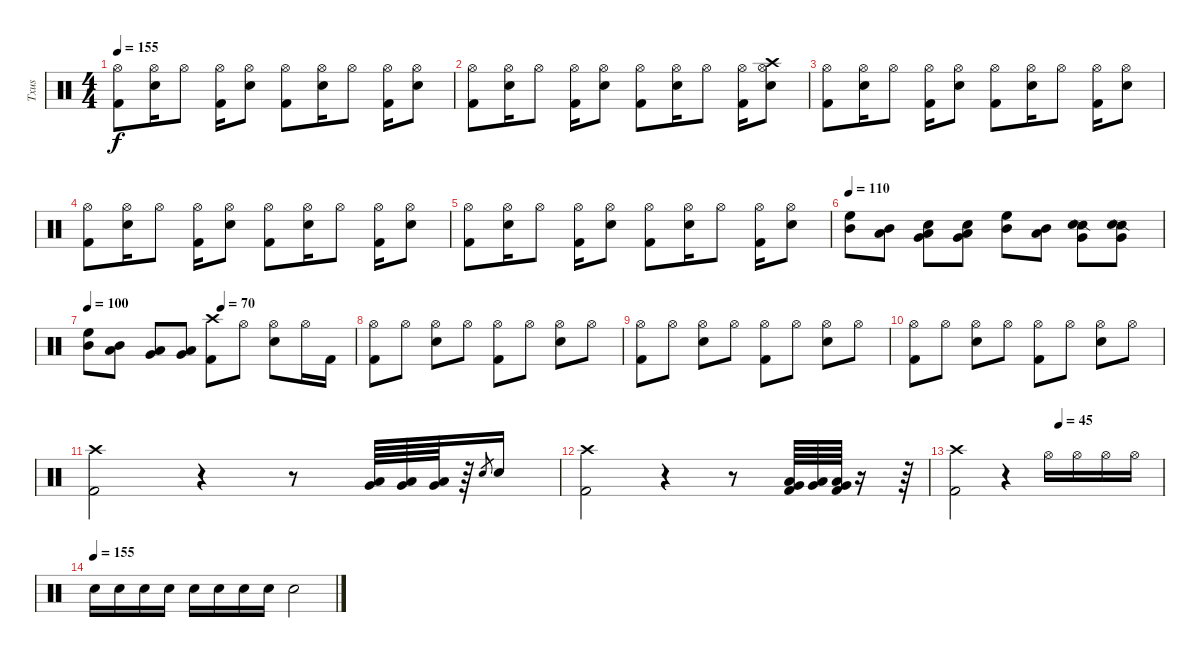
\track ("Txus" "Txus") {instrument percussion}
\staff {score}
\articulation defaults
\ts (4 4)
\tempo 155
\clef neutral
\ks c
("Kick (hit) 2" "Hi-Hat (open)").8{dy f} ("Snare (hit) 2" "Hi-Hat (open)").16 "Hi-Hat (open)".8 ("Kick (hit) 2" "Hi-Hat (open)").16 ("Snare (hit) 2" "Hi-Hat (open)").8 ("Kick (hit) 2" "Hi-Hat (open)").8 ("Snare (hit) 2" "Hi-Hat (open)").16 "Hi-Hat (open)".8 ("Kick (hit) 2" "Hi-Hat (open)").16 ("Snare (hit) 2" "Hi-Hat (open)").8 |
("Kick (hit) 2" "Hi-Hat (open)").8 ("Snare (hit) 2" "Hi-Hat (open)").16 "Hi-Hat (open)".8 ("Kick (hit) 2" "Hi-Hat (open)").16 ("Snare (hit) 2" "Hi-Hat (open)").8 ("Kick (hit) 2" "Hi-Hat (open)").8 ("Snare (hit) 2" "Hi-Hat (open)").16 "Hi-Hat (open)".8 ("Kick (hit) 2" "Hi-Hat (open)").16 ("Snare (hit) 2" "Hi-Hat (open)" "Crash high (hit)").8 |
("Kick (hit) 2" "Hi-Hat (open)").8 ("Snare (hit) 2" "Hi-Hat (open)").16 "Hi-Hat (open)".8 ("Kick (hit) 2" "Hi-Hat (open)").16 ("Snare (hit) 2" "Hi-Hat (open)").8 ("Kick (hit) 2" "Hi-Hat (open)").8 ("Snare (hit) 2" "Hi-Hat (open)").16 "Hi-Hat (open)".8 ("Kick (hit) 2" "Hi-Hat (open)").16 ("Snare (hit) 2" "Hi-Hat (open)").8 |
("Kick (hit) 2" "Hi-Hat (open)").8 ("Snare (hit) 2" "Hi-Hat (open)").16 "Hi-Hat (open)".8 ("Kick (hit) 2" "Hi-Hat (open)").16 ("Snare (hit) 2" "Hi-Hat (open)").8 ("Kick (hit) 2" "Hi-Hat (open)").8 ("Snare (hit) 2" "Hi-Hat (open)").16 "Hi-Hat (open)".8 ("Kick (hit) 2" "Hi-Hat (open)").16 ("Snare (hit) 2" "Hi-Hat (open)").8 |
("Kick (hit) 2" "Hi-Hat (open)").8 ("Snare (hit) 2" "Hi-Hat (open)").16 "Hi-Hat (open)".8 ("Kick (hit) 2" "Hi-Hat (open)").16 ("Snare (hit) 2" "Hi-Hat (open)").8 ("Kick (hit) 2" "Hi-Hat (open)").8 ("Snare (hit) 2" "Hi-Hat (open)").16 "Hi-Hat (open)".8 ("Kick (hit) 2" "Hi-Hat (open)").16 ("Snare (hit) 2" "Hi-Hat (open)").8 |
\tempo 110
("High Floor Tom (hit)" "Mid Tom (hit)").8 ("Mid Tom (hit)" "Low Tom (hit)").8 ("Very Low Tom (hit)" "Low Floor Tom (hit)" "Snare (hit) 2").8 ("Very Low Tom (hit)" "Low Floor Tom (hit)" "Snare (hit) 2").8 ("High Floor Tom (hit)" "Mid Tom (hit)").8 ("Mid Tom (hit)" "Low Tom (hit)").8 ("Very Low Tom (hit)" "Snare (side stick) 2" "Snare (hit) 2").8 ("Very Low Tom (hit)" "Snare (side stick) 2" "Snare (hit) 2").8 |
\tempo 100
\tempo (70 0.5)
("High Floor Tom (hit)" "Mid Tom (hit)").8 ("Mid Tom (hit)" "Low Tom (hit)").8 ("Very Low Tom (hit)" "Low Floor Tom (hit)").8 ("Very Low Tom (hit)" "Low Floor Tom (hit)").8 ("Kick (hit) 2" "Crash high (hit)").8 "Hi-Hat (open)".8 ("Snare (hit) 2" "Hi-Hat (open)").8 "Hi-Hat (open)".16 "Kick (hit) 2".16 |
("Kick (hit) 2" "Hi-Hat (open)").8 "Hi-Hat (open)".8 ("Snare (hit) 2" "Hi-Hat (open)").8 "Hi-Hat (open)".8 ("Kick (hit) 2" "Hi-Hat (open)").8 "Hi-Hat (open)".8 ("Snare (hit) 2" "Hi-Hat (open)").8 "Hi-Hat (open)".8 |
("Kick (hit) 2" "Hi-Hat (open)").8 "Hi-Hat (open)".8 ("Snare (hit) 2" "Hi-Hat (open)").8 "Hi-Hat (open)".8 ("Kick (hit) 2" "Hi-Hat (open)").8 "Hi-Hat (open)".8 ("Snare (hit) 2" "Hi-Hat (open)").8 "Hi-Hat (open)".8 |
("Kick (hit) 2" "Hi-Hat (open)").8 "Hi-Hat (open)".8 ("Snare (hit) 2" "Hi-Hat (open)").8 "Hi-Hat (open)".8 ("Kick (hit) 2" "Hi-Hat (open)").8 "Hi-Hat (open)".8 ("Snare (hit) 2" "Hi-Hat (open)").8 "Hi-Hat (open)".8 |
("Kick (hit) 2" "Crash high (hit)").2 r.4 r.8 ("Very Low Tom (hit)" "Low Floor Tom (hit)").64 ("Very Low Tom (hit)" "Low Floor Tom (hit)").64 ("Very Low Tom (hit)" "Low Floor Tom (hit)").64 r.64 "Snare (hit) 2".8{gr} "Snare (hit) 2".16 |
("Kick (hit) 2" "Crash high (hit)").2 r.4 r.8 ("Kick (hit) 2" "Very Low Tom (hit)" "Low Floor Tom (hit)").64 ("Very Low Tom (hit)" "Low Floor Tom (hit)").64 ("Kick (hit) 2" "Very Low Tom (hit)" "Low Floor Tom (hit)").64 r.16 r.64 |
\tempo (45 0.5)
("Kick (hit) 2" "Crash high (hit)").2 r.4 "Hi-Hat (open)".16 "Hi-Hat (open)".16 "Hi-Hat (open)".16 "Hi-Hat (open)".16 |
\tempo (155)
"Snare (hit) 2".16 "Snare (hit) 2".16 "Snare (hit) 2".16 "Snare (hit) 2".16 "Snare (hit) 2".16 "Snare (hit) 2".16 "Snare (hit) 2".16 "Snare (hit) 2".16 "Snare (hit) 2".2
